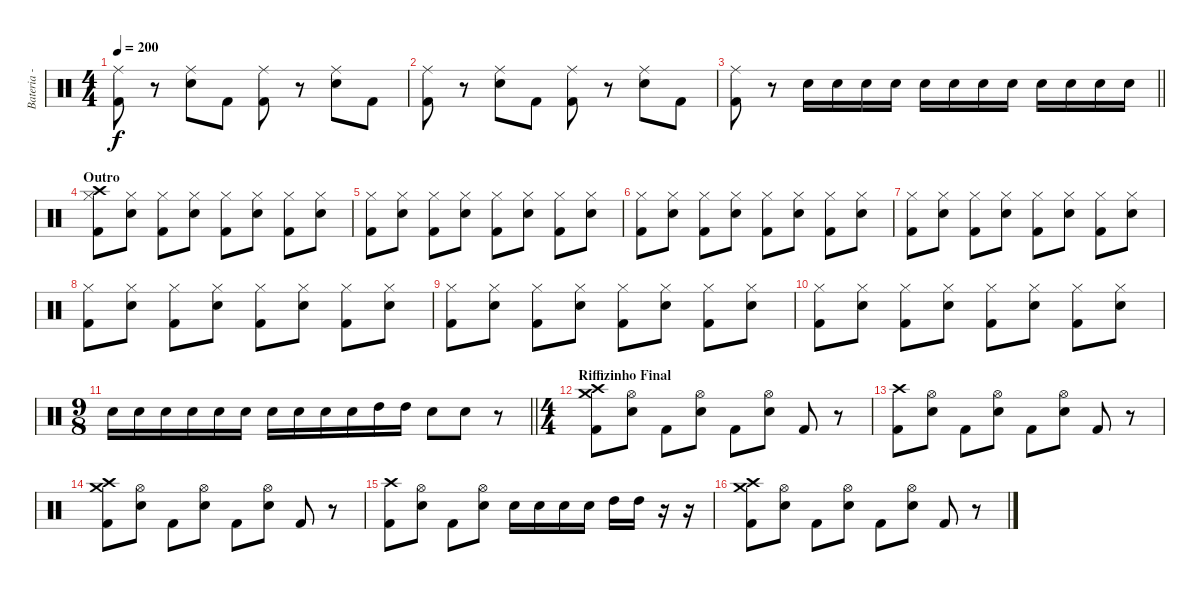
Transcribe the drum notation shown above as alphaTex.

\track ("Bateria - Larzon" "Bateria - ") {instrument percussion}
\staff {score}
\articulation defaults
\ts (4 4)
\tempo 200
\clef neutral
\ks c
("Kick (hit) 2" "Ride (middle)").8{dy f} r.8 ("Electric Snare (hit)" "Ride (middle)").8 "Kick (hit) 2".8 ("Kick (hit) 2" "Ride (middle)").8 r.8 ("Electric Snare (hit)" "Ride (middle)").8 "Kick (hit) 2".8 |
("Kick (hit) 2" "Ride (middle)").8 r.8 ("Electric Snare (hit)" "Ride (middle)").8 "Kick (hit) 2".8 ("Kick (hit) 2" "Ride (middle)").8 r.8 ("Electric Snare (hit)" "Ride (middle)").8 "Kick (hit) 2".8 |
\barLineRight lightlight
("Kick (hit) 2" "Ride (middle)").8 r.8 "Electric Snare (hit)".16 "Electric Snare (hit)".16 "Electric Snare (hit)".16 "Electric Snare (hit)".16 "Electric Snare (hit)".16 "Electric Snare (hit)".16 "Electric Snare (hit)".16 "Electric Snare (hit)".16 "Electric Snare (hit)".16 "Electric Snare (hit)".16 "Electric Snare (hit)".16 "Electric Snare (hit)".16 |
\section ("" "Outro")
("Kick (hit) 2" "Crash high (hit)" "Hi-Hat (closed)").8 ("Electric Snare (hit)" "Hi-Hat (closed)").8 ("Kick (hit) 2" "Hi-Hat (closed)").8 ("Electric Snare (hit)" "Hi-Hat (closed)").8 ("Kick (hit) 2" "Hi-Hat (closed)").8 ("Electric Snare (hit)" "Hi-Hat (closed)").8 ("Kick (hit) 2" "Hi-Hat (closed)").8 ("Electric Snare (hit)" "Hi-Hat (closed)").8 |
("Kick (hit) 2" "Hi-Hat (closed)").8 ("Electric Snare (hit)" "Hi-Hat (closed)").8 ("Kick (hit) 2" "Hi-Hat (closed)").8 ("Electric Snare (hit)" "Hi-Hat (closed)").8 ("Kick (hit) 2" "Hi-Hat (closed)").8 ("Electric Snare (hit)" "Hi-Hat (closed)").8 ("Kick (hit) 2" "Hi-Hat (closed)").8 ("Electric Snare (hit)" "Hi-Hat (closed)").8 |
("Kick (hit) 2" "Hi-Hat (closed)").8 ("Electric Snare (hit)" "Hi-Hat (closed)").8 ("Kick (hit) 2" "Hi-Hat (closed)").8 ("Electric Snare (hit)" "Hi-Hat (closed)").8 ("Kick (hit) 2" "Hi-Hat (closed)").8 ("Electric Snare (hit)" "Hi-Hat (closed)").8 ("Kick (hit) 2" "Hi-Hat (closed)").8 ("Electric Snare (hit)" "Hi-Hat (closed)").8 |
("Kick (hit) 2" "Hi-Hat (closed)").8 ("Electric Snare (hit)" "Hi-Hat (closed)").8 ("Kick (hit) 2" "Hi-Hat (closed)").8 ("Electric Snare (hit)" "Hi-Hat (closed)").8 ("Kick (hit) 2" "Hi-Hat (closed)").8 ("Electric Snare (hit)" "Hi-Hat (closed)").8 ("Kick (hit) 2" "Hi-Hat (closed)").8 ("Electric Snare (hit)" "Hi-Hat (closed)").8 |
("Kick (hit) 2" "Hi-Hat (closed)").8 ("Electric Snare (hit)" "Hi-Hat (closed)").8 ("Kick (hit) 2" "Hi-Hat (closed)").8 ("Electric Snare (hit)" "Hi-Hat (closed)").8 ("Kick (hit) 2" "Hi-Hat (closed)").8 ("Electric Snare (hit)" "Hi-Hat (closed)").8 ("Kick (hit) 2" "Hi-Hat (closed)").8 ("Electric Snare (hit)" "Hi-Hat (closed)").8 |
("Kick (hit) 2" "Hi-Hat (closed)").8 ("Electric Snare (hit)" "Hi-Hat (closed)").8 ("Kick (hit) 2" "Hi-Hat (closed)").8 ("Electric Snare (hit)" "Hi-Hat (closed)").8 ("Kick (hit) 2" "Hi-Hat (closed)").8 ("Electric Snare (hit)" "Hi-Hat (closed)").8 ("Kick (hit) 2" "Hi-Hat (closed)").8 ("Electric Snare (hit)" "Hi-Hat (closed)").8 |
("Kick (hit) 2" "Hi-Hat (closed)").8 ("Electric Snare (hit)" "Hi-Hat (closed)").8 ("Kick (hit) 2" "Hi-Hat (closed)").8 ("Electric Snare (hit)" "Hi-Hat (closed)").8 ("Kick (hit) 2" "Hi-Hat (closed)").8 ("Electric Snare (hit)" "Hi-Hat (closed)").8 ("Kick (hit) 2" "Hi-Hat (closed)").8 ("Electric Snare (hit)" "Hi-Hat (closed)").8 |
\ts (9 8)
\barLineRight lightlight "Electric Snare (hit)".16 "Electric Snare (hit)".16 "Electric Snare (hit)".16 "Electric Snare (hit)".16 "Electric Snare (hit)".16 "Electric Snare (hit)".16 "Electric Snare (hit)".16 "Electric Snare (hit)".16 "Electric Snare (hit)".16 "Electric Snare (hit)".16 "High Tom (hit)".16 "High Tom (hit)".16 "Electric Snare (hit)".8 "Electric Snare (hit)".8
r.8 |
\ts (4 4)
\section ("" "Riffizinho Final")
("Kick (hit) 2" "Crash high (hit)" "Crash medium (hit)").8 ("Hi-Hat (open)" "Electric Snare (hit)").8 "Kick (hit) 2".8 ("Hi-Hat (open)" "Electric Snare (hit)").8 "Kick (hit) 2".8 ("Hi-Hat (open)" "Electric Snare (hit)").8 "Kick (hit) 2".8 r.8 |
("Kick (hit) 2" "Crash high (hit)").8 ("Hi-Hat (open)" "Electric Snare (hit)").8 "Kick (hit) 2".8 ("Hi-Hat (open)" "Electric Snare (hit)").8 "Kick (hit) 2".8 ("Hi-Hat (open)" "Electric Snare (hit)").8 "Kick (hit) 2".8 r.8 |
("Kick (hit) 2" "Crash high (hit)" "Crash medium (hit)").8 ("Hi-Hat (open)" "Electric Snare (hit)").8 "Kick (hit) 2".8 ("Hi-Hat (open)" "Electric Snare (hit)").8 "Kick (hit) 2".8 ("Hi-Hat (open)" "Electric Snare (hit)").8 "Kick (hit) 2".8 r.8 |
("Kick (hit) 2" "Crash high (hit)").8 ("Hi-Hat (open)" "Electric Snare (hit)").8 "Kick (hit) 2".8 ("Hi-Hat (open)" "Electric Snare (hit)").8 "Electric Snare (hit)".16 "Electric Snare (hit)".16 "Electric Snare (hit)".16 "Electric Snare (hit)".16 "High Tom (hit)".16 "High Tom (hit)".16 r.16 r.16 |
("Kick (hit) 2" "Crash high (hit)" "Crash medium (hit)").8 ("Hi-Hat (open)" "Electric Snare (hit)").8 "Kick (hit) 2".8 ("Hi-Hat (open)" "Electric Snare (hit)").8 "Kick (hit) 2".8 ("Hi-Hat (open)" "Electric Snare (hit)").8 "Kick (hit) 2".8 r.8
